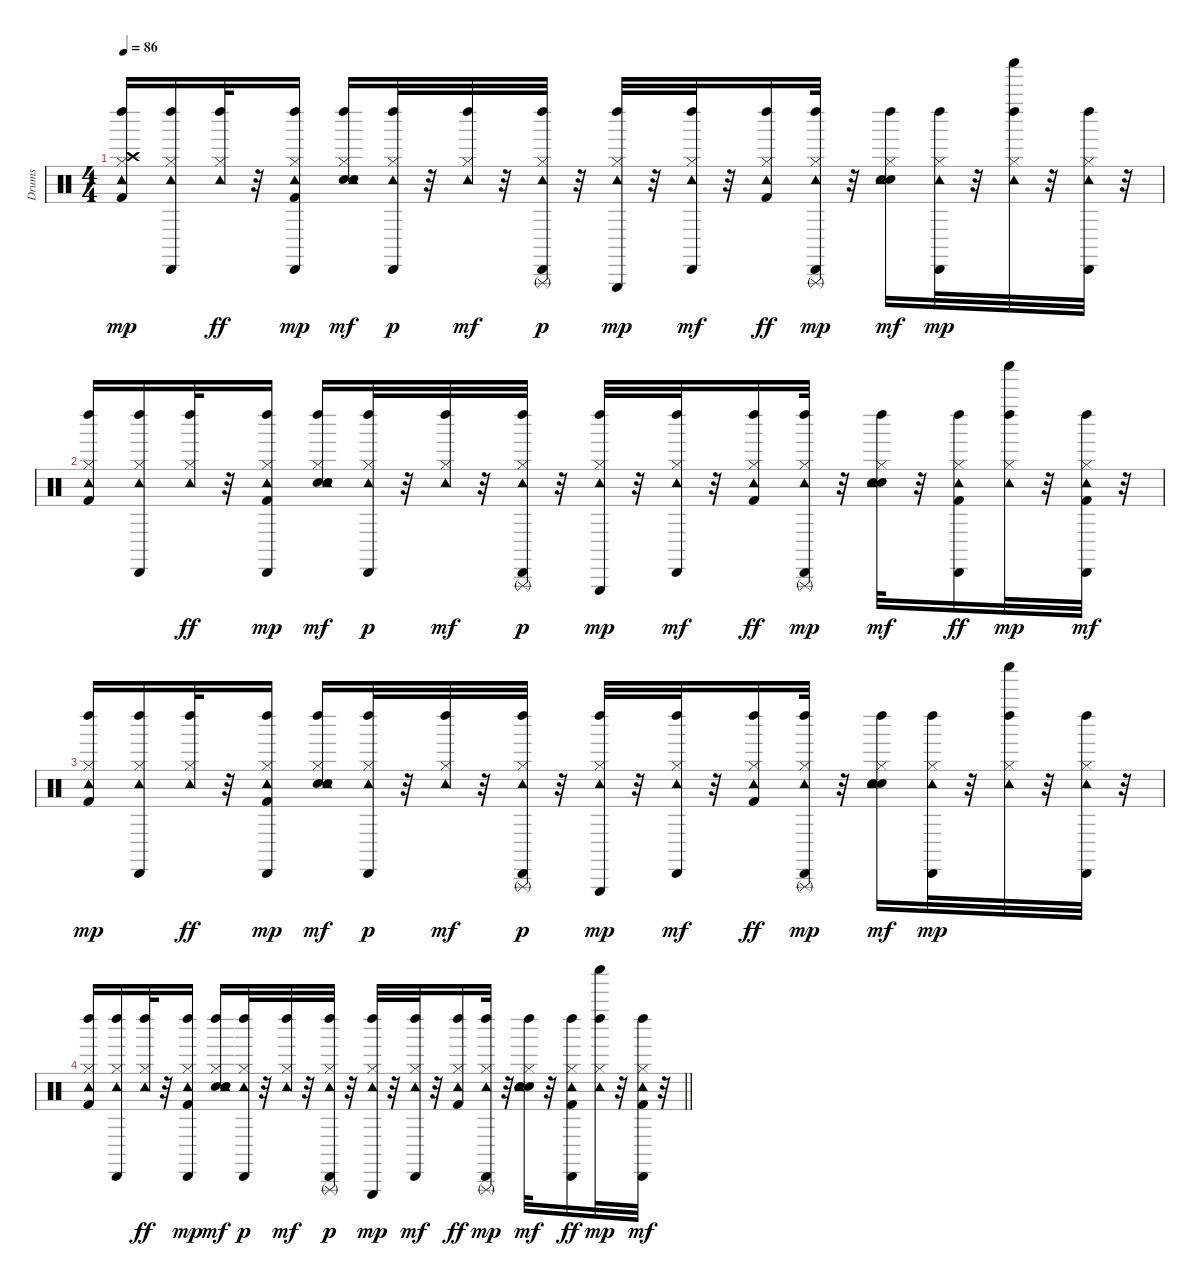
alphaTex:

\track ("Drums" "Drums") {instrument percussion}
\staff {score}
\articulation defaults
\ts (4 4)
\tempo 86
\clef neutral
\ks c
("Hi-Hat (closed)" "Crash high (hit)" "Tambourine (hit)" "Left Maraca (hit)" "Kick (hit) 2").16{dy mp} ("Hi-Hat (closed)" "Tambourine (hit)" "Cabasa (hit)" "Left Maraca (hit)").16 ("Hi-Hat (closed)" "Tambourine (hit)" "Left Maraca (hit)").32{dy ff} r.32 ("Hi-Hat (closed)" "Tambourine (hit)" "Cabasa (hit)" "Left Maraca (hit)" "Kick (hit) 2").16{dy mp} ("Hi-Hat (closed)" "Hand Clap (hit)" "Tambourine (hit)" "Left Maraca (hit)" "Electric Snare (hit)").16{dy mf} ("Hi-Hat (closed)" "Tambourine (hit)" "Cabasa (hit)" "Left Maraca (hit)").32{dy p} r.32 ("Hi-Hat (closed)" "Tambourine (hit)" "Left Maraca (hit)").32{dy mf} r.32 ("Hi-Hat (closed)" "Tambourine (hit)" "Cabasa (hit)" "Left Maraca (hit)" "Triangle (rnute)").32{dy p} r.32 ("Hi-Hat (closed)" "Tambourine (hit)" "Left Maraca (hit)" "Triangle (hit)").32{dy mp} r.32 ("Hi-Hat (closed)" "Tambourine (hit)" "Cabasa (hit)" "Left Maraca (hit)").32{dy mf} r.32 ("Hi-Hat (closed)" "Tambourine (hit)" "Left Maraca (hit)" "Kick (hit) 2").16{dy ff} ("Hi-Hat (closed)" "Tambourine (hit)" "Cabasa (hit)" "Left Maraca (hit)" "Triangle (rnute)").32{dy mp} r.32 ("Hi-Hat (closed)" "Hand Clap (hit)" "Tambourine (hit)" "Left Maraca (hit)" "Electric Snare (hit)").16{dy mf} ("Hi-Hat (closed)" "Tambourine (hit)" "Cabasa (hit)" "Left Maraca (hit)").32{dy mp} r.32 ("Hi-Hat (closed)" "Tambourine (hit)" "Left Maraca (hit)" "Shaker (hit)").32 r.32 ("Hi-Hat (closed)" "Tambourine (hit)" "Cabasa (hit)" "Left Maraca (hit)").32 r.32 |
("Hi-Hat (closed)" "Tambourine (hit)" "Left Maraca (hit)" "Kick (hit) 2").16 ("Hi-Hat (closed)" "Tambourine (hit)" "Cabasa (hit)" "Left Maraca (hit)").16 ("Hi-Hat (closed)" "Tambourine (hit)" "Left Maraca (hit)").32{dy ff} r.32 ("Hi-Hat (closed)" "Tambourine (hit)" "Cabasa (hit)" "Left Maraca (hit)" "Kick (hit) 2").16{dy mp} ("Hi-Hat (closed)" "Hand Clap (hit)" "Tambourine (hit)" "Left Maraca (hit)" "Electric Snare (hit)").16{dy mf} ("Hi-Hat (closed)" "Tambourine (hit)" "Cabasa (hit)" "Left Maraca (hit)").32{dy p} r.32 ("Hi-Hat (closed)" "Tambourine (hit)" "Left Maraca (hit)").32{dy mf} r.32 ("Hi-Hat (closed)" "Tambourine (hit)" "Cabasa (hit)" "Left Maraca (hit)" "Triangle (rnute)").32{dy p} r.32 ("Hi-Hat (closed)" "Tambourine (hit)" "Left Maraca (hit)" "Triangle (hit)").32{dy mp} r.32 ("Hi-Hat (closed)" "Tambourine (hit)" "Cabasa (hit)" "Left Maraca (hit)").32{dy mf} r.32 ("Hi-Hat (closed)" "Tambourine (hit)" "Left Maraca (hit)" "Kick (hit) 2").16{dy ff} ("Hi-Hat (closed)" "Tambourine (hit)" "Cabasa (hit)" "Left Maraca (hit)" "Triangle (rnute)").32{dy mp} r.32 ("Hi-Hat (closed)" "Hand Clap (hit)" "Tambourine (hit)" "Left Maraca (hit)" "Electric Snare (hit)").32{dy mf} r.32 ("Hi-Hat (closed)" "Tambourine (hit)" "Cabasa (hit)" "Left Maraca (hit)" "Kick (hit) 2").16{dy ff} ("Hi-Hat (closed)" "Tambourine (hit)" "Left Maraca (hit)" "Shaker (hit)").32{dy mp} r.32 ("Hi-Hat (closed)" "Tambourine (hit)" "Cabasa (hit)" "Left Maraca (hit)" "Kick (hit) 2").32{dy mf} r.32 |
("Hi-Hat (closed)" "Tambourine (hit)" "Left Maraca (hit)" "Kick (hit) 2").16{dy mp} ("Hi-Hat (closed)" "Tambourine (hit)" "Cabasa (hit)" "Left Maraca (hit)").16 ("Hi-Hat (closed)" "Tambourine (hit)" "Left Maraca (hit)").32{dy ff} r.32 ("Hi-Hat (closed)" "Tambourine (hit)" "Cabasa (hit)" "Left Maraca (hit)" "Kick (hit) 2").16{dy mp} ("Hi-Hat (closed)" "Hand Clap (hit)" "Tambourine (hit)" "Left Maraca (hit)" "Electric Snare (hit)").16{dy mf} ("Hi-Hat (closed)" "Tambourine (hit)" "Cabasa (hit)" "Left Maraca (hit)").32{dy p} r.32 ("Hi-Hat (closed)" "Tambourine (hit)" "Left Maraca (hit)").32{dy mf} r.32 ("Hi-Hat (closed)" "Tambourine (hit)" "Cabasa (hit)" "Left Maraca (hit)" "Triangle (rnute)").32{dy p} r.32 ("Hi-Hat (closed)" "Tambourine (hit)" "Left Maraca (hit)" "Triangle (hit)").32{dy mp} r.32 ("Hi-Hat (closed)" "Tambourine (hit)" "Cabasa (hit)" "Left Maraca (hit)").32{dy mf} r.32 ("Hi-Hat (closed)" "Tambourine (hit)" "Left Maraca (hit)" "Kick (hit) 2").16{dy ff} ("Hi-Hat (closed)" "Tambourine (hit)" "Cabasa (hit)" "Left Maraca (hit)" "Triangle (rnute)").32{dy mp} r.32 ("Hi-Hat (closed)" "Hand Clap (hit)" "Tambourine (hit)" "Left Maraca (hit)" "Electric Snare (hit)").16{dy mf} ("Hi-Hat (closed)" "Tambourine (hit)" "Cabasa (hit)" "Left Maraca (hit)").32{dy mp} r.32 ("Hi-Hat (closed)" "Tambourine (hit)" "Left Maraca (hit)" "Shaker (hit)").32 r.32 ("Hi-Hat (closed)" "Tambourine (hit)" "Cabasa (hit)" "Left Maraca (hit)").32 r.32 |
\barLineRight lightlight
("Hi-Hat (closed)" "Tambourine (hit)" "Left Maraca (hit)" "Kick (hit) 2").16 ("Hi-Hat (closed)" "Tambourine (hit)" "Cabasa (hit)" "Left Maraca (hit)").16 ("Hi-Hat (closed)" "Tambourine (hit)" "Left Maraca (hit)").32{dy ff} r.32 ("Hi-Hat (closed)" "Tambourine (hit)" "Cabasa (hit)" "Left Maraca (hit)" "Kick (hit) 2").16{dy mp} ("Hi-Hat (closed)" "Hand Clap (hit)" "Tambourine (hit)" "Left Maraca (hit)" "Electric Snare (hit)").16{dy mf} ("Hi-Hat (closed)" "Tambourine (hit)" "Cabasa (hit)" "Left Maraca (hit)").32{dy p} r.32 ("Hi-Hat (closed)" "Tambourine (hit)" "Left Maraca (hit)").32{dy mf} r.32 ("Hi-Hat (closed)" "Tambourine (hit)" "Cabasa (hit)" "Left Maraca (hit)" "Triangle (rnute)").32{dy p} r.32 ("Hi-Hat (closed)" "Tambourine (hit)" "Left Maraca (hit)" "Triangle (hit)").32{dy mp} r.32 ("Hi-Hat (closed)" "Tambourine (hit)" "Cabasa (hit)" "Left Maraca (hit)").32{dy mf} r.32 ("Hi-Hat (closed)" "Tambourine (hit)" "Left Maraca (hit)" "Kick (hit) 2").16{dy ff} ("Hi-Hat (closed)" "Tambourine (hit)" "Cabasa (hit)" "Left Maraca (hit)" "Triangle (rnute)").32{dy mp} r.32 ("Hi-Hat (closed)" "Hand Clap (hit)" "Tambourine (hit)" "Left Maraca (hit)" "Electric Snare (hit)").32{dy mf} r.32 ("Hi-Hat (closed)" "Tambourine (hit)" "Cabasa (hit)" "Left Maraca (hit)" "Kick (hit) 2").16{dy ff} ("Hi-Hat (closed)" "Tambourine (hit)" "Left Maraca (hit)" "Shaker (hit)").32{dy mp} r.32 ("Hi-Hat (closed)" "Tambourine (hit)" "Cabasa (hit)" "Left Maraca (hit)" "Kick (hit) 2").32{dy mf} r.32
